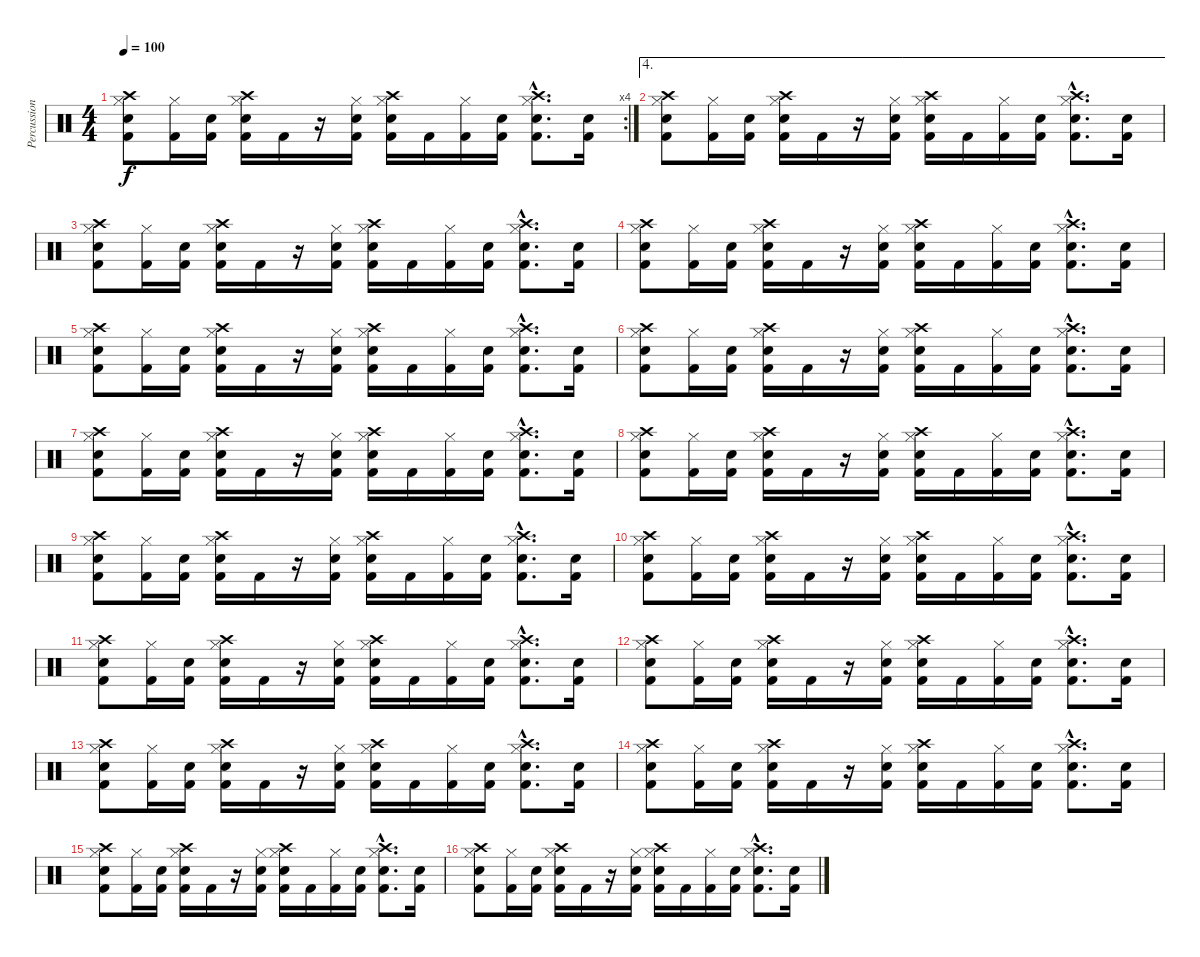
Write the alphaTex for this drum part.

\track ("Percussion" "Percussion") {instrument percussion}
\staff {score}
\articulation defaults
\rc 4
\ts (4 4)
\tempo 100
\clef neutral
\ks c
("Electric Snare (hit)" "Kick (hit) 2" "Hi-Hat (closed)" "Crash high (hit)").8{dy f} ("Kick (hit) 2" "Hi-Hat (closed)").16 ("Electric Snare (hit)" "Kick (hit) 2").16 ("Electric Snare (hit)" "Kick (hit) 2" "Hi-Hat (closed)" "Crash high (hit)").16 "Kick (hit) 2".16 r.16 ("Electric Snare (hit)" "Kick (hit) 2" "Hi-Hat (closed)").16 ("Electric Snare (hit)" "Kick (hit) 2" "Hi-Hat (closed)" "Crash high (hit)").16 "Kick (hit) 2".16 ("Kick (hit) 2" "Hi-Hat (closed)").16 ("Electric Snare (hit)" "Kick (hit) 2").16 ("Electric Snare (hit)"{hac} "Kick (hit) 2"{hac} "Hi-Hat (closed)"{hac} "Crash high (hit)"{hac}).8{d} ("Electric Snare (hit)" "Kick (hit) 2").16 |
\ae 4
("Electric Snare (hit)" "Kick (hit) 2" "Hi-Hat (closed)" "Crash high (hit)").8 ("Kick (hit) 2" "Hi-Hat (closed)").16 ("Electric Snare (hit)" "Kick (hit) 2").16 ("Electric Snare (hit)" "Kick (hit) 2" "Hi-Hat (closed)" "Crash high (hit)").16 "Kick (hit) 2".16 r.16 ("Electric Snare (hit)" "Kick (hit) 2" "Hi-Hat (closed)").16 ("Electric Snare (hit)" "Kick (hit) 2" "Hi-Hat (closed)" "Crash high (hit)").16 "Kick (hit) 2".16 ("Kick (hit) 2" "Hi-Hat (closed)").16 ("Electric Snare (hit)" "Kick (hit) 2").16 ("Electric Snare (hit)"{hac} "Kick (hit) 2"{hac} "Hi-Hat (closed)"{hac} "Crash high (hit)"{hac}).8{d} ("Electric Snare (hit)" "Kick (hit) 2").16 |
("Electric Snare (hit)" "Kick (hit) 2" "Hi-Hat (closed)" "Crash high (hit)").8 ("Kick (hit) 2" "Hi-Hat (closed)").16 ("Electric Snare (hit)" "Kick (hit) 2").16 ("Electric Snare (hit)" "Kick (hit) 2" "Hi-Hat (closed)" "Crash high (hit)").16 "Kick (hit) 2".16 r.16 ("Electric Snare (hit)" "Kick (hit) 2" "Hi-Hat (closed)").16 ("Electric Snare (hit)" "Kick (hit) 2" "Hi-Hat (closed)" "Crash high (hit)").16 "Kick (hit) 2".16 ("Kick (hit) 2" "Hi-Hat (closed)").16 ("Electric Snare (hit)" "Kick (hit) 2").16 ("Electric Snare (hit)"{hac} "Kick (hit) 2"{hac} "Hi-Hat (closed)"{hac} "Crash high (hit)"{hac}).8{d} ("Electric Snare (hit)" "Kick (hit) 2").16 |
("Electric Snare (hit)" "Kick (hit) 2" "Hi-Hat (closed)" "Crash high (hit)").8 ("Kick (hit) 2" "Hi-Hat (closed)").16 ("Electric Snare (hit)" "Kick (hit) 2").16 ("Electric Snare (hit)" "Kick (hit) 2" "Hi-Hat (closed)" "Crash high (hit)").16 "Kick (hit) 2".16 r.16 ("Electric Snare (hit)" "Kick (hit) 2" "Hi-Hat (closed)").16 ("Electric Snare (hit)" "Kick (hit) 2" "Hi-Hat (closed)" "Crash high (hit)").16 "Kick (hit) 2".16 ("Kick (hit) 2" "Hi-Hat (closed)").16 ("Electric Snare (hit)" "Kick (hit) 2").16 ("Electric Snare (hit)"{hac} "Kick (hit) 2"{hac} "Hi-Hat (closed)"{hac} "Crash high (hit)"{hac}).8{d} ("Electric Snare (hit)" "Kick (hit) 2").16 |
("Electric Snare (hit)" "Kick (hit) 2" "Hi-Hat (closed)" "Crash high (hit)").8 ("Kick (hit) 2" "Hi-Hat (closed)").16 ("Electric Snare (hit)" "Kick (hit) 2").16 ("Electric Snare (hit)" "Kick (hit) 2" "Hi-Hat (closed)" "Crash high (hit)").16 "Kick (hit) 2".16 r.16 ("Electric Snare (hit)" "Kick (hit) 2" "Hi-Hat (closed)").16 ("Electric Snare (hit)" "Kick (hit) 2" "Hi-Hat (closed)" "Crash high (hit)").16 "Kick (hit) 2".16 ("Kick (hit) 2" "Hi-Hat (closed)").16 ("Electric Snare (hit)" "Kick (hit) 2").16 ("Electric Snare (hit)"{hac} "Kick (hit) 2"{hac} "Hi-Hat (closed)"{hac} "Crash high (hit)"{hac}).8{d} ("Electric Snare (hit)" "Kick (hit) 2").16 |
("Electric Snare (hit)" "Kick (hit) 2" "Hi-Hat (closed)" "Crash high (hit)").8 ("Kick (hit) 2" "Hi-Hat (closed)").16 ("Electric Snare (hit)" "Kick (hit) 2").16 ("Electric Snare (hit)" "Kick (hit) 2" "Hi-Hat (closed)" "Crash high (hit)").16 "Kick (hit) 2".16 r.16 ("Electric Snare (hit)" "Kick (hit) 2" "Hi-Hat (closed)").16 ("Electric Snare (hit)" "Kick (hit) 2" "Hi-Hat (closed)" "Crash high (hit)").16 "Kick (hit) 2".16 ("Kick (hit) 2" "Hi-Hat (closed)").16 ("Electric Snare (hit)" "Kick (hit) 2").16 ("Electric Snare (hit)"{hac} "Kick (hit) 2"{hac} "Hi-Hat (closed)"{hac} "Crash high (hit)"{hac}).8{d} ("Electric Snare (hit)" "Kick (hit) 2").16 |
("Electric Snare (hit)" "Kick (hit) 2" "Hi-Hat (closed)" "Crash high (hit)").8 ("Kick (hit) 2" "Hi-Hat (closed)").16 ("Electric Snare (hit)" "Kick (hit) 2").16 ("Electric Snare (hit)" "Kick (hit) 2" "Hi-Hat (closed)" "Crash high (hit)").16 "Kick (hit) 2".16 r.16 ("Electric Snare (hit)" "Kick (hit) 2" "Hi-Hat (closed)").16 ("Electric Snare (hit)" "Kick (hit) 2" "Hi-Hat (closed)" "Crash high (hit)").16 "Kick (hit) 2".16 ("Kick (hit) 2" "Hi-Hat (closed)").16 ("Electric Snare (hit)" "Kick (hit) 2").16 ("Electric Snare (hit)"{hac} "Kick (hit) 2"{hac} "Hi-Hat (closed)"{hac} "Crash high (hit)"{hac}).8{d} ("Electric Snare (hit)" "Kick (hit) 2").16 |
("Electric Snare (hit)" "Kick (hit) 2" "Hi-Hat (closed)" "Crash high (hit)").8 ("Kick (hit) 2" "Hi-Hat (closed)").16 ("Electric Snare (hit)" "Kick (hit) 2").16 ("Electric Snare (hit)" "Kick (hit) 2" "Hi-Hat (closed)" "Crash high (hit)").16 "Kick (hit) 2".16 r.16 ("Electric Snare (hit)" "Kick (hit) 2" "Hi-Hat (closed)").16 ("Electric Snare (hit)" "Kick (hit) 2" "Hi-Hat (closed)" "Crash high (hit)").16 "Kick (hit) 2".16 ("Kick (hit) 2" "Hi-Hat (closed)").16 ("Electric Snare (hit)" "Kick (hit) 2").16 ("Electric Snare (hit)"{hac} "Kick (hit) 2"{hac} "Hi-Hat (closed)"{hac} "Crash high (hit)"{hac}).8{d} ("Electric Snare (hit)" "Kick (hit) 2").16 |
("Electric Snare (hit)" "Kick (hit) 2" "Hi-Hat (closed)" "Crash high (hit)").8 ("Kick (hit) 2" "Hi-Hat (closed)").16 ("Electric Snare (hit)" "Kick (hit) 2").16 ("Electric Snare (hit)" "Kick (hit) 2" "Hi-Hat (closed)" "Crash high (hit)").16 "Kick (hit) 2".16 r.16 ("Electric Snare (hit)" "Kick (hit) 2" "Hi-Hat (closed)").16 ("Electric Snare (hit)" "Kick (hit) 2" "Hi-Hat (closed)" "Crash high (hit)").16 "Kick (hit) 2".16 ("Kick (hit) 2" "Hi-Hat (closed)").16 ("Electric Snare (hit)" "Kick (hit) 2").16 ("Electric Snare (hit)"{hac} "Kick (hit) 2"{hac} "Hi-Hat (closed)"{hac} "Crash high (hit)"{hac}).8{d} ("Electric Snare (hit)" "Kick (hit) 2").16 |
("Electric Snare (hit)" "Kick (hit) 2" "Hi-Hat (closed)" "Crash high (hit)").8 ("Kick (hit) 2" "Hi-Hat (closed)").16 ("Electric Snare (hit)" "Kick (hit) 2").16 ("Electric Snare (hit)" "Kick (hit) 2" "Hi-Hat (closed)" "Crash high (hit)").16 "Kick (hit) 2".16 r.16 ("Electric Snare (hit)" "Kick (hit) 2" "Hi-Hat (closed)").16 ("Electric Snare (hit)" "Kick (hit) 2" "Hi-Hat (closed)" "Crash high (hit)").16 "Kick (hit) 2".16 ("Kick (hit) 2" "Hi-Hat (closed)").16 ("Electric Snare (hit)" "Kick (hit) 2").16 ("Electric Snare (hit)"{hac} "Kick (hit) 2"{hac} "Hi-Hat (closed)"{hac} "Crash high (hit)"{hac}).8{d} ("Electric Snare (hit)" "Kick (hit) 2").16 |
("Electric Snare (hit)" "Kick (hit) 2" "Hi-Hat (closed)" "Crash high (hit)").8 ("Kick (hit) 2" "Hi-Hat (closed)").16 ("Electric Snare (hit)" "Kick (hit) 2").16 ("Electric Snare (hit)" "Kick (hit) 2" "Hi-Hat (closed)" "Crash high (hit)").16 "Kick (hit) 2".16 r.16 ("Electric Snare (hit)" "Kick (hit) 2" "Hi-Hat (closed)").16 ("Electric Snare (hit)" "Kick (hit) 2" "Hi-Hat (closed)" "Crash high (hit)").16 "Kick (hit) 2".16 ("Kick (hit) 2" "Hi-Hat (closed)").16 ("Electric Snare (hit)" "Kick (hit) 2").16 ("Electric Snare (hit)"{hac} "Kick (hit) 2"{hac} "Hi-Hat (closed)"{hac} "Crash high (hit)"{hac}).8{d} ("Electric Snare (hit)" "Kick (hit) 2").16 |
("Electric Snare (hit)" "Kick (hit) 2" "Hi-Hat (closed)" "Crash high (hit)").8 ("Kick (hit) 2" "Hi-Hat (closed)").16 ("Electric Snare (hit)" "Kick (hit) 2").16 ("Electric Snare (hit)" "Kick (hit) 2" "Hi-Hat (closed)" "Crash high (hit)").16 "Kick (hit) 2".16 r.16 ("Electric Snare (hit)" "Kick (hit) 2" "Hi-Hat (closed)").16 ("Electric Snare (hit)" "Kick (hit) 2" "Hi-Hat (closed)" "Crash high (hit)").16 "Kick (hit) 2".16 ("Kick (hit) 2" "Hi-Hat (closed)").16 ("Electric Snare (hit)" "Kick (hit) 2").16 ("Electric Snare (hit)"{hac} "Kick (hit) 2"{hac} "Hi-Hat (closed)"{hac} "Crash high (hit)"{hac}).8{d} ("Electric Snare (hit)" "Kick (hit) 2").16 |
("Electric Snare (hit)" "Kick (hit) 2" "Hi-Hat (closed)" "Crash high (hit)").8 ("Kick (hit) 2" "Hi-Hat (closed)").16 ("Electric Snare (hit)" "Kick (hit) 2").16 ("Electric Snare (hit)" "Kick (hit) 2" "Hi-Hat (closed)" "Crash high (hit)").16 "Kick (hit) 2".16 r.16 ("Electric Snare (hit)" "Kick (hit) 2" "Hi-Hat (closed)").16 ("Electric Snare (hit)" "Kick (hit) 2" "Hi-Hat (closed)" "Crash high (hit)").16 "Kick (hit) 2".16 ("Kick (hit) 2" "Hi-Hat (closed)").16 ("Electric Snare (hit)" "Kick (hit) 2").16 ("Electric Snare (hit)"{hac} "Kick (hit) 2"{hac} "Hi-Hat (closed)"{hac} "Crash high (hit)"{hac}).8{d} ("Electric Snare (hit)" "Kick (hit) 2").16 |
("Electric Snare (hit)" "Kick (hit) 2" "Hi-Hat (closed)" "Crash high (hit)").8 ("Kick (hit) 2" "Hi-Hat (closed)").16 ("Electric Snare (hit)" "Kick (hit) 2").16 ("Electric Snare (hit)" "Kick (hit) 2" "Hi-Hat (closed)" "Crash high (hit)").16 "Kick (hit) 2".16 r.16 ("Electric Snare (hit)" "Kick (hit) 2" "Hi-Hat (closed)").16 ("Electric Snare (hit)" "Kick (hit) 2" "Hi-Hat (closed)" "Crash high (hit)").16 "Kick (hit) 2".16 ("Kick (hit) 2" "Hi-Hat (closed)").16 ("Electric Snare (hit)" "Kick (hit) 2").16 ("Electric Snare (hit)"{hac} "Kick (hit) 2"{hac} "Hi-Hat (closed)"{hac} "Crash high (hit)"{hac}).8{d} ("Electric Snare (hit)" "Kick (hit) 2").16 |
("Electric Snare (hit)" "Kick (hit) 2" "Hi-Hat (closed)" "Crash high (hit)").8 ("Kick (hit) 2" "Hi-Hat (closed)").16 ("Electric Snare (hit)" "Kick (hit) 2").16 ("Electric Snare (hit)" "Kick (hit) 2" "Hi-Hat (closed)" "Crash high (hit)").16 "Kick (hit) 2".16 r.16 ("Electric Snare (hit)" "Kick (hit) 2" "Hi-Hat (closed)").16 ("Electric Snare (hit)" "Kick (hit) 2" "Hi-Hat (closed)" "Crash high (hit)").16 "Kick (hit) 2".16 ("Kick (hit) 2" "Hi-Hat (closed)").16 ("Electric Snare (hit)" "Kick (hit) 2").16 ("Electric Snare (hit)"{hac} "Kick (hit) 2"{hac} "Hi-Hat (closed)"{hac} "Crash high (hit)"{hac}).8{d} ("Electric Snare (hit)" "Kick (hit) 2").16 |
("Electric Snare (hit)" "Kick (hit) 2" "Hi-Hat (closed)" "Crash high (hit)").8 ("Kick (hit) 2" "Hi-Hat (closed)").16 ("Electric Snare (hit)" "Kick (hit) 2").16 ("Electric Snare (hit)" "Kick (hit) 2" "Hi-Hat (closed)" "Crash high (hit)").16 "Kick (hit) 2".16 r.16 ("Electric Snare (hit)" "Kick (hit) 2" "Hi-Hat (closed)").16 ("Electric Snare (hit)" "Kick (hit) 2" "Hi-Hat (closed)" "Crash high (hit)").16 "Kick (hit) 2".16 ("Kick (hit) 2" "Hi-Hat (closed)").16 ("Electric Snare (hit)" "Kick (hit) 2").16 ("Electric Snare (hit)"{hac} "Kick (hit) 2"{hac} "Hi-Hat (closed)"{hac} "Crash high (hit)"{hac}).8{d} ("Electric Snare (hit)" "Kick (hit) 2").16
